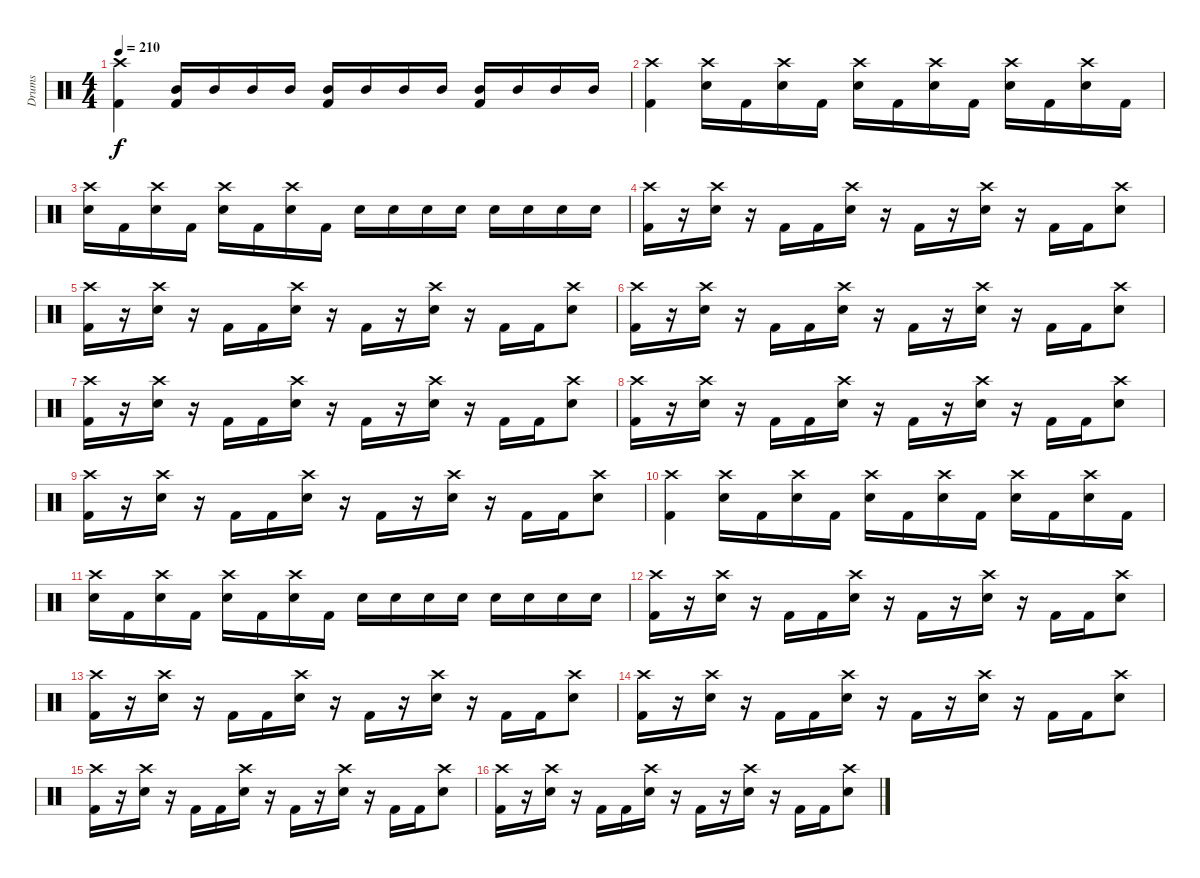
\track ("Drums" "Drums") {instrument percussion}
\staff {score}
\articulation defaults
\ts (4 4)
\tempo 210
\clef neutral
\ks c
("Crash high (hit)" "Kick (hit) 2").4{dy f} ("Mid Tom (hit)" "Kick (hit) 2").16 "Mid Tom (hit)".16 "Mid Tom (hit)".16 "Mid Tom (hit)".16 ("Mid Tom (hit)" "Kick (hit) 2").16 "Mid Tom (hit)".16 "Mid Tom (hit)".16 "Mid Tom (hit)".16 ("Mid Tom (hit)" "Kick (hit) 2").16 "Mid Tom (hit)".16 "Mid Tom (hit)".16 "Mid Tom (hit)".16 |
("Crash high (hit)" "Kick (hit) 2").4 ("Crash high (hit)" "Snare (hit) 2").16 "Kick (hit) 2".16 ("Crash high (hit)" "Snare (hit) 2").16 "Kick (hit) 2".16 ("Crash high (hit)" "Snare (hit) 2").16 "Kick (hit) 2".16 ("Crash high (hit)" "Snare (hit) 2").16 "Kick (hit) 2".16 ("Crash high (hit)" "Snare (hit) 2").16 "Kick (hit) 2".16 ("Crash high (hit)" "Snare (hit) 2").16 "Kick (hit) 2".16 |
("Crash high (hit)" "Snare (hit) 2").16 "Kick (hit) 2".16 ("Crash high (hit)" "Snare (hit) 2").16 "Kick (hit) 2".16 ("Crash high (hit)" "Snare (hit) 2").16 "Kick (hit) 2".16 ("Crash high (hit)" "Snare (hit) 2").16 "Kick (hit) 2".16 "Snare (hit) 2".16 "Snare (hit) 2".16 "Snare (hit) 2".16 "Snare (hit) 2".16 "Snare (hit) 2".16 "Snare (hit) 2".16 "Snare (hit) 2".16 "Snare (hit) 2".16 |
("Crash high (hit)" "Kick (hit) 2").16 r.16 ("Crash high (hit)" "Snare (hit) 2").16 r.16 "Kick (hit) 2".16 "Kick (hit) 2".16 ("Crash high (hit)" "Snare (hit) 2").16 r.16 "Kick (hit) 2".16 r.16 ("Crash high (hit)" "Snare (hit) 2").16 r.16 "Kick (hit) 2".16 "Kick (hit) 2".16 ("Crash high (hit)" "Snare (hit) 2").8 |
("Crash high (hit)" "Kick (hit) 2").16 r.16 ("Crash high (hit)" "Snare (hit) 2").16 r.16 "Kick (hit) 2".16 "Kick (hit) 2".16 ("Crash high (hit)" "Snare (hit) 2").16 r.16 "Kick (hit) 2".16 r.16 ("Crash high (hit)" "Snare (hit) 2").16 r.16 "Kick (hit) 2".16 "Kick (hit) 2".16 ("Crash high (hit)" "Snare (hit) 2").8 |
("Crash high (hit)" "Kick (hit) 2").16 r.16 ("Crash high (hit)" "Snare (hit) 2").16 r.16 "Kick (hit) 2".16 "Kick (hit) 2".16 ("Crash high (hit)" "Snare (hit) 2").16 r.16 "Kick (hit) 2".16 r.16 ("Crash high (hit)" "Snare (hit) 2").16 r.16 "Kick (hit) 2".16 "Kick (hit) 2".16 ("Crash high (hit)" "Snare (hit) 2").8 |
("Crash high (hit)" "Kick (hit) 2").16 r.16 ("Crash high (hit)" "Snare (hit) 2").16 r.16 "Kick (hit) 2".16 "Kick (hit) 2".16 ("Crash high (hit)" "Snare (hit) 2").16 r.16 "Kick (hit) 2".16 r.16 ("Crash high (hit)" "Snare (hit) 2").16 r.16 "Kick (hit) 2".16 "Kick (hit) 2".16 ("Crash high (hit)" "Snare (hit) 2").8 |
("Crash high (hit)" "Kick (hit) 2").16 r.16 ("Crash high (hit)" "Snare (hit) 2").16 r.16 "Kick (hit) 2".16 "Kick (hit) 2".16 ("Crash high (hit)" "Snare (hit) 2").16 r.16 "Kick (hit) 2".16 r.16 ("Crash high (hit)" "Snare (hit) 2").16 r.16 "Kick (hit) 2".16 "Kick (hit) 2".16 ("Crash high (hit)" "Snare (hit) 2").8 |
("Crash high (hit)" "Kick (hit) 2").16 r.16 ("Crash high (hit)" "Snare (hit) 2").16 r.16 "Kick (hit) 2".16 "Kick (hit) 2".16 ("Crash high (hit)" "Snare (hit) 2").16 r.16 "Kick (hit) 2".16 r.16 ("Crash high (hit)" "Snare (hit) 2").16 r.16 "Kick (hit) 2".16 "Kick (hit) 2".16 ("Crash high (hit)" "Snare (hit) 2").8 |
("Crash high (hit)" "Kick (hit) 2").4 ("Crash high (hit)" "Snare (hit) 2").16 "Kick (hit) 2".16 ("Crash high (hit)" "Snare (hit) 2").16 "Kick (hit) 2".16 ("Crash high (hit)" "Snare (hit) 2").16 "Kick (hit) 2".16 ("Crash high (hit)" "Snare (hit) 2").16 "Kick (hit) 2".16 ("Crash high (hit)" "Snare (hit) 2").16 "Kick (hit) 2".16 ("Crash high (hit)" "Snare (hit) 2").16 "Kick (hit) 2".16 |
("Crash high (hit)" "Snare (hit) 2").16 "Kick (hit) 2".16 ("Crash high (hit)" "Snare (hit) 2").16 "Kick (hit) 2".16 ("Crash high (hit)" "Snare (hit) 2").16 "Kick (hit) 2".16 ("Crash high (hit)" "Snare (hit) 2").16 "Kick (hit) 2".16 "Snare (hit) 2".16 "Snare (hit) 2".16 "Snare (hit) 2".16 "Snare (hit) 2".16 "Snare (hit) 2".16 "Snare (hit) 2".16 "Snare (hit) 2".16 "Snare (hit) 2".16 |
("Crash high (hit)" "Kick (hit) 2").16 r.16 ("Crash high (hit)" "Snare (hit) 2").16 r.16 "Kick (hit) 2".16 "Kick (hit) 2".16 ("Crash high (hit)" "Snare (hit) 2").16 r.16 "Kick (hit) 2".16 r.16 ("Crash high (hit)" "Snare (hit) 2").16 r.16 "Kick (hit) 2".16 "Kick (hit) 2".16 ("Crash high (hit)" "Snare (hit) 2").8 |
("Crash high (hit)" "Kick (hit) 2").16 r.16 ("Crash high (hit)" "Snare (hit) 2").16 r.16 "Kick (hit) 2".16 "Kick (hit) 2".16 ("Crash high (hit)" "Snare (hit) 2").16 r.16 "Kick (hit) 2".16 r.16 ("Crash high (hit)" "Snare (hit) 2").16 r.16 "Kick (hit) 2".16 "Kick (hit) 2".16 ("Crash high (hit)" "Snare (hit) 2").8 |
("Crash high (hit)" "Kick (hit) 2").16 r.16 ("Crash high (hit)" "Snare (hit) 2").16 r.16 "Kick (hit) 2".16 "Kick (hit) 2".16 ("Crash high (hit)" "Snare (hit) 2").16 r.16 "Kick (hit) 2".16 r.16 ("Crash high (hit)" "Snare (hit) 2").16 r.16 "Kick (hit) 2".16 "Kick (hit) 2".16 ("Crash high (hit)" "Snare (hit) 2").8 |
("Crash high (hit)" "Kick (hit) 2").16 r.16 ("Crash high (hit)" "Snare (hit) 2").16 r.16 "Kick (hit) 2".16 "Kick (hit) 2".16 ("Crash high (hit)" "Snare (hit) 2").16 r.16 "Kick (hit) 2".16 r.16 ("Crash high (hit)" "Snare (hit) 2").16 r.16 "Kick (hit) 2".16 "Kick (hit) 2".16 ("Crash high (hit)" "Snare (hit) 2").8 |
("Crash high (hit)" "Kick (hit) 2").16 r.16 ("Crash high (hit)" "Snare (hit) 2").16 r.16 "Kick (hit) 2".16 "Kick (hit) 2".16 ("Crash high (hit)" "Snare (hit) 2").16 r.16 "Kick (hit) 2".16 r.16 ("Crash high (hit)" "Snare (hit) 2").16 r.16 "Kick (hit) 2".16 "Kick (hit) 2".16 ("Crash high (hit)" "Snare (hit) 2").8
